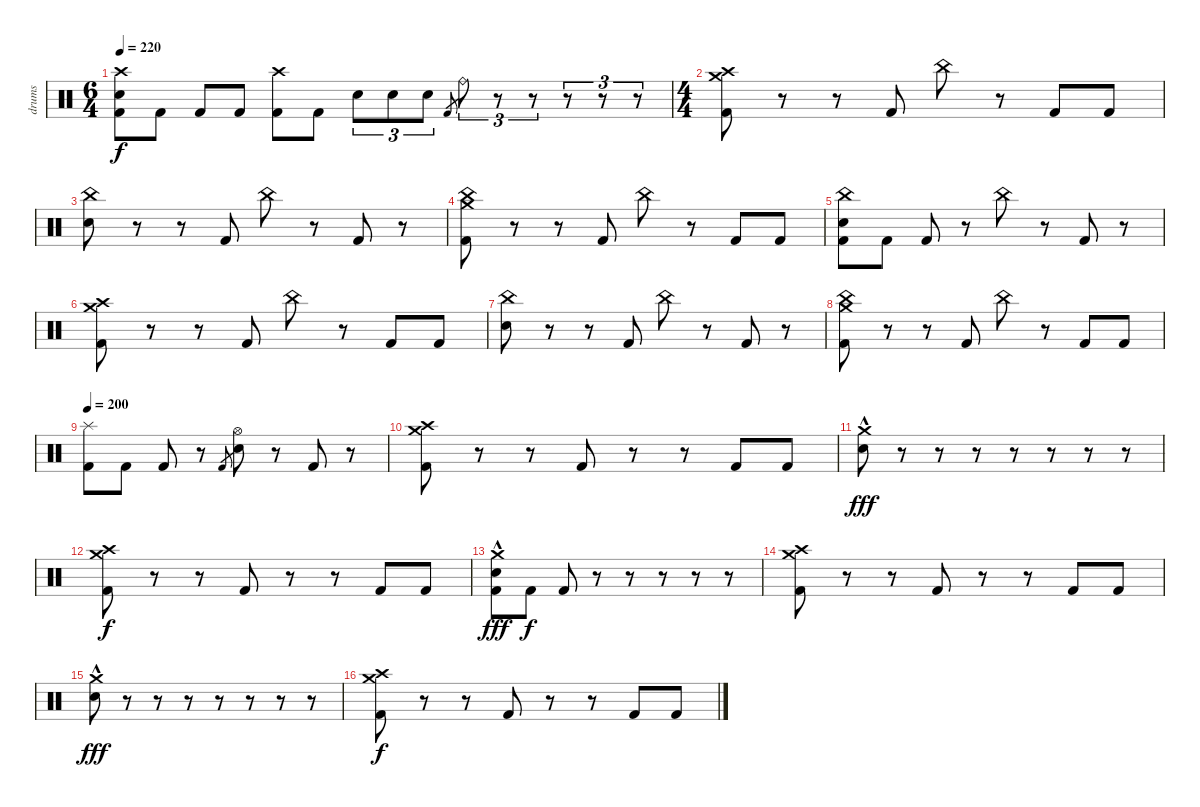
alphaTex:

\track ("drums" "drums") {instrument percussion}
\staff {score}
\articulation defaults
\ts (6 4)
\tempo 220
\clef neutral
\ks c
("Crash high (hit)" "Electric Snare (hit)" "Kick (hit) 2").8{dy f} "Kick (hit) 2".8 "Kick (hit) 2".8 "Kick (hit) 2".8 ("Crash high (hit)" "Kick (hit) 2").8 "Kick (hit) 2".8 "Electric Snare (hit)".8{tu (3 2)} "Electric Snare (hit)".8{tu (3 2)} "Electric Snare (hit)".8{tu (3 2)} "Kick (hit) 2".8{gr} "Ride (bell)".8{tu (3 2)} r.8{tu (3 2)} r.8{tu (3 2)} r.8{tu (3 2)} r.8{tu (3 2)} r.8{tu (3 2)} |
\ts (4 4)
("Crash high (hit)" "Crash medium (hit)" "Kick (hit) 2").8 r.8 r.8 "Kick (hit) 2".8 "China (hit)".8 r.8 "Kick (hit) 2".8 "Kick (hit) 2".8 |
("China (hit)" "Electric Snare (hit)").8 r.8 r.8 "Kick (hit) 2".8 "China (hit)".8 r.8 "Kick (hit) 2".8 r.8 |
("China (hit)" "Crash medium (hit)" "Kick (hit) 2").8 r.8 r.8 "Kick (hit) 2".8 "China (hit)".8 r.8 "Kick (hit) 2".8 "Kick (hit) 2".8 |
("China (hit)" "Electric Snare (hit)" "Kick (hit) 2").8 "Kick (hit) 2".8 "Kick (hit) 2".8 r.8 "China (hit)".8 r.8 "Kick (hit) 2".8 r.8 |
("Crash high (hit)" "Crash medium (hit)" "Kick (hit) 2").8 r.8 r.8 "Kick (hit) 2".8 "China (hit)".8 r.8 "Kick (hit) 2".8 "Kick (hit) 2".8 |
("China (hit)" "Electric Snare (hit)").8 r.8 r.8 "Kick (hit) 2".8 "China (hit)".8 r.8 "Kick (hit) 2".8 r.8 |
("China (hit)" "Crash medium (hit)" "Kick (hit) 2").8 r.8 r.8 "Kick (hit) 2".8 "China (hit)".8 r.8 "Kick (hit) 2".8 "Kick (hit) 2".8 |
\tempo 200
("Splash (hit)" "Kick (hit) 2").8 "Kick (hit) 2".8 "Kick (hit) 2".8 r.8 "Kick (hit) 2".8{gr} ("Hi-Hat (open)" "Electric Snare (hit)").8 r.8 "Kick (hit) 2".8 r.8 |
("Crash high (hit)" "Crash medium (hit)" "Kick (hit) 2").8 r.8 r.8 "Kick (hit) 2".8 r.8 r.8 "Kick (hit) 2".8 "Kick (hit) 2".8 |
("Crash medium (hit)" "Electric Snare (hit)"{hac}).8{dy fff} r.8 r.8 r.8 r.8 r.8 r.8 r.8 |
("Crash high (hit)" "Crash medium (hit)" "Kick (hit) 2").8{dy f} r.8 r.8 "Kick (hit) 2".8 r.8 r.8 "Kick (hit) 2".8 "Kick (hit) 2".8 |
("Crash medium (hit)" "Electric Snare (hit)"{hac} "Kick (hit) 2").8{dy fff} "Kick (hit) 2".8{dy f} "Kick (hit) 2".8 r.8 r.8 r.8 r.8 r.8 |
("Crash high (hit)" "Crash medium (hit)" "Kick (hit) 2").8 r.8 r.8 "Kick (hit) 2".8 r.8 r.8 "Kick (hit) 2".8 "Kick (hit) 2".8 |
("Crash medium (hit)" "Electric Snare (hit)"{hac}).8{dy fff} r.8 r.8 r.8 r.8 r.8 r.8 r.8 |
("Crash high (hit)" "Crash medium (hit)" "Kick (hit) 2").8{dy f} r.8 r.8 "Kick (hit) 2".8 r.8 r.8 "Kick (hit) 2".8 "Kick (hit) 2".8
